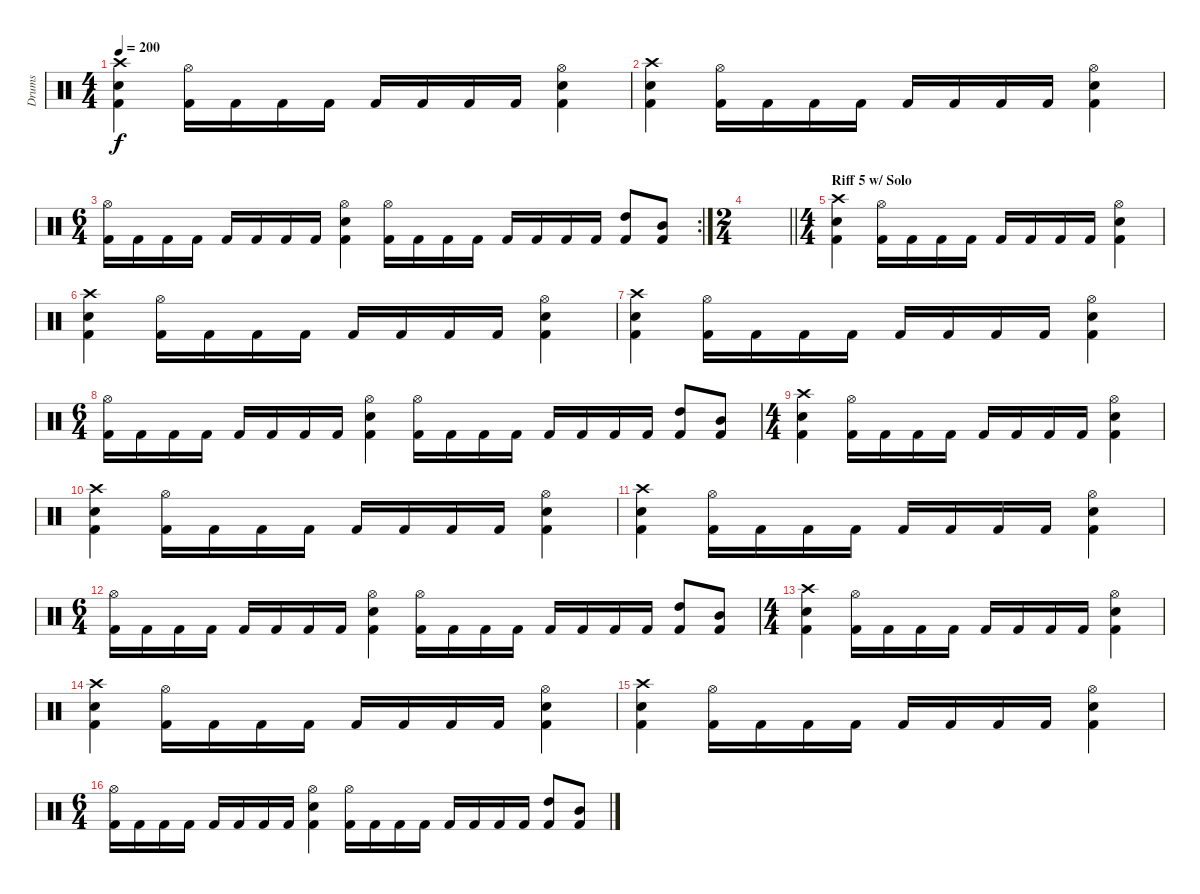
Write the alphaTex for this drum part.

\track ("Drums" "Drums") {instrument percussion}
\staff {score}
\articulation defaults
\ts (4 4)
\tempo 200
\clef neutral
\ks c
("Crash high (hit)" "Electric Snare (hit)" "Kick (hit) 2").4{dy f} ("Hi-Hat (open)" "Kick (hit) 2").16 "Kick (hit) 2".16 "Kick (hit) 2".16 "Kick (hit) 2".16 "Kick (hit) 2".16 "Kick (hit) 2".16 "Kick (hit) 2".16 "Kick (hit) 2".16 ("Hi-Hat (open)" "Electric Snare (hit)" "Kick (hit) 2").4 |
("Crash high (hit)" "Electric Snare (hit)" "Kick (hit) 2").4 ("Hi-Hat (open)" "Kick (hit) 2").16 "Kick (hit) 2".16 "Kick (hit) 2".16 "Kick (hit) 2".16 "Kick (hit) 2".16 "Kick (hit) 2".16 "Kick (hit) 2".16 "Kick (hit) 2".16 ("Hi-Hat (open)" "Electric Snare (hit)" "Kick (hit) 2").4 |
\rc 2
\ts (6 4)
("Hi-Hat (open)" "Kick (hit) 2").16 "Kick (hit) 2".16 "Kick (hit) 2".16 "Kick (hit) 2".16 "Kick (hit) 2".16 "Kick (hit) 2".16 "Kick (hit) 2".16 "Kick (hit) 2".16 ("Hi-Hat (open)" "Electric Snare (hit)" "Kick (hit) 2").4 ("Hi-Hat (open)" "Kick (hit) 2").16 "Kick (hit) 2".16 "Kick (hit) 2".16 "Kick (hit) 2".16 "Kick (hit) 2".16 "Kick (hit) 2".16 "Kick (hit) 2".16 "Kick (hit) 2".16 ("High Tom (hit)" "Kick (hit) 2").8 ("Mid Tom (hit)" "Kick (hit) 2").8 |
\ts (2 4)
\barLineRight lightlight
|
\ts (4 4)
\section ("" "Riff 5 w/ Solo")
("Crash high (hit)" "Electric Snare (hit)" "Kick (hit) 2").4 ("Hi-Hat (open)" "Kick (hit) 2").16 "Kick (hit) 2".16 "Kick (hit) 2".16 "Kick (hit) 2".16 "Kick (hit) 2".16 "Kick (hit) 2".16 "Kick (hit) 2".16 "Kick (hit) 2".16 ("Hi-Hat (open)" "Electric Snare (hit)" "Kick (hit) 2").4 |
("Crash high (hit)" "Electric Snare (hit)" "Kick (hit) 2").4 ("Hi-Hat (open)" "Kick (hit) 2").16 "Kick (hit) 2".16 "Kick (hit) 2".16 "Kick (hit) 2".16 "Kick (hit) 2".16 "Kick (hit) 2".16 "Kick (hit) 2".16 "Kick (hit) 2".16 ("Hi-Hat (open)" "Electric Snare (hit)" "Kick (hit) 2").4 |
("Crash high (hit)" "Electric Snare (hit)" "Kick (hit) 2").4 ("Hi-Hat (open)" "Kick (hit) 2").16 "Kick (hit) 2".16 "Kick (hit) 2".16 "Kick (hit) 2".16 "Kick (hit) 2".16 "Kick (hit) 2".16 "Kick (hit) 2".16 "Kick (hit) 2".16 ("Hi-Hat (open)" "Electric Snare (hit)" "Kick (hit) 2").4 |
\ts (6 4)
("Hi-Hat (open)" "Kick (hit) 2").16 "Kick (hit) 2".16 "Kick (hit) 2".16 "Kick (hit) 2".16 "Kick (hit) 2".16 "Kick (hit) 2".16 "Kick (hit) 2".16 "Kick (hit) 2".16 ("Hi-Hat (open)" "Electric Snare (hit)" "Kick (hit) 2").4 ("Hi-Hat (open)" "Kick (hit) 2").16 "Kick (hit) 2".16 "Kick (hit) 2".16 "Kick (hit) 2".16 "Kick (hit) 2".16 "Kick (hit) 2".16 "Kick (hit) 2".16 "Kick (hit) 2".16 ("High Tom (hit)" "Kick (hit) 2").8 ("Mid Tom (hit)" "Kick (hit) 2").8 |
\ts (4 4)
("Crash high (hit)" "Electric Snare (hit)" "Kick (hit) 2").4 ("Hi-Hat (open)" "Kick (hit) 2").16 "Kick (hit) 2".16 "Kick (hit) 2".16 "Kick (hit) 2".16 "Kick (hit) 2".16 "Kick (hit) 2".16 "Kick (hit) 2".16 "Kick (hit) 2".16 ("Hi-Hat (open)" "Electric Snare (hit)" "Kick (hit) 2").4 |
("Crash high (hit)" "Electric Snare (hit)" "Kick (hit) 2").4 ("Hi-Hat (open)" "Kick (hit) 2").16 "Kick (hit) 2".16 "Kick (hit) 2".16 "Kick (hit) 2".16 "Kick (hit) 2".16 "Kick (hit) 2".16 "Kick (hit) 2".16 "Kick (hit) 2".16 ("Hi-Hat (open)" "Electric Snare (hit)" "Kick (hit) 2").4 |
("Crash high (hit)" "Electric Snare (hit)" "Kick (hit) 2").4 ("Hi-Hat (open)" "Kick (hit) 2").16 "Kick (hit) 2".16 "Kick (hit) 2".16 "Kick (hit) 2".16 "Kick (hit) 2".16 "Kick (hit) 2".16 "Kick (hit) 2".16 "Kick (hit) 2".16 ("Hi-Hat (open)" "Electric Snare (hit)" "Kick (hit) 2").4 |
\ts (6 4)
("Hi-Hat (open)" "Kick (hit) 2").16 "Kick (hit) 2".16 "Kick (hit) 2".16 "Kick (hit) 2".16 "Kick (hit) 2".16 "Kick (hit) 2".16 "Kick (hit) 2".16 "Kick (hit) 2".16 ("Hi-Hat (open)" "Electric Snare (hit)" "Kick (hit) 2").4 ("Hi-Hat (open)" "Kick (hit) 2").16 "Kick (hit) 2".16 "Kick (hit) 2".16 "Kick (hit) 2".16 "Kick (hit) 2".16 "Kick (hit) 2".16 "Kick (hit) 2".16 "Kick (hit) 2".16 ("High Tom (hit)" "Kick (hit) 2").8 ("Mid Tom (hit)" "Kick (hit) 2").8 |
\ts (4 4)
("Crash high (hit)" "Electric Snare (hit)" "Kick (hit) 2").4 ("Hi-Hat (open)" "Kick (hit) 2").16 "Kick (hit) 2".16 "Kick (hit) 2".16 "Kick (hit) 2".16 "Kick (hit) 2".16 "Kick (hit) 2".16 "Kick (hit) 2".16 "Kick (hit) 2".16 ("Hi-Hat (open)" "Electric Snare (hit)" "Kick (hit) 2").4 |
("Crash high (hit)" "Electric Snare (hit)" "Kick (hit) 2").4 ("Hi-Hat (open)" "Kick (hit) 2").16 "Kick (hit) 2".16 "Kick (hit) 2".16 "Kick (hit) 2".16 "Kick (hit) 2".16 "Kick (hit) 2".16 "Kick (hit) 2".16 "Kick (hit) 2".16 ("Hi-Hat (open)" "Electric Snare (hit)" "Kick (hit) 2").4 |
("Crash high (hit)" "Electric Snare (hit)" "Kick (hit) 2").4 ("Hi-Hat (open)" "Kick (hit) 2").16 "Kick (hit) 2".16 "Kick (hit) 2".16 "Kick (hit) 2".16 "Kick (hit) 2".16 "Kick (hit) 2".16 "Kick (hit) 2".16 "Kick (hit) 2".16 ("Hi-Hat (open)" "Electric Snare (hit)" "Kick (hit) 2").4 |
\ts (6 4)
("Hi-Hat (open)" "Kick (hit) 2").16 "Kick (hit) 2".16 "Kick (hit) 2".16 "Kick (hit) 2".16 "Kick (hit) 2".16 "Kick (hit) 2".16 "Kick (hit) 2".16 "Kick (hit) 2".16 ("Hi-Hat (open)" "Electric Snare (hit)" "Kick (hit) 2").4 ("Hi-Hat (open)" "Kick (hit) 2").16 "Kick (hit) 2".16 "Kick (hit) 2".16 "Kick (hit) 2".16 "Kick (hit) 2".16 "Kick (hit) 2".16 "Kick (hit) 2".16 "Kick (hit) 2".16 ("High Tom (hit)" "Kick (hit) 2").8 ("Mid Tom (hit)" "Kick (hit) 2").8
